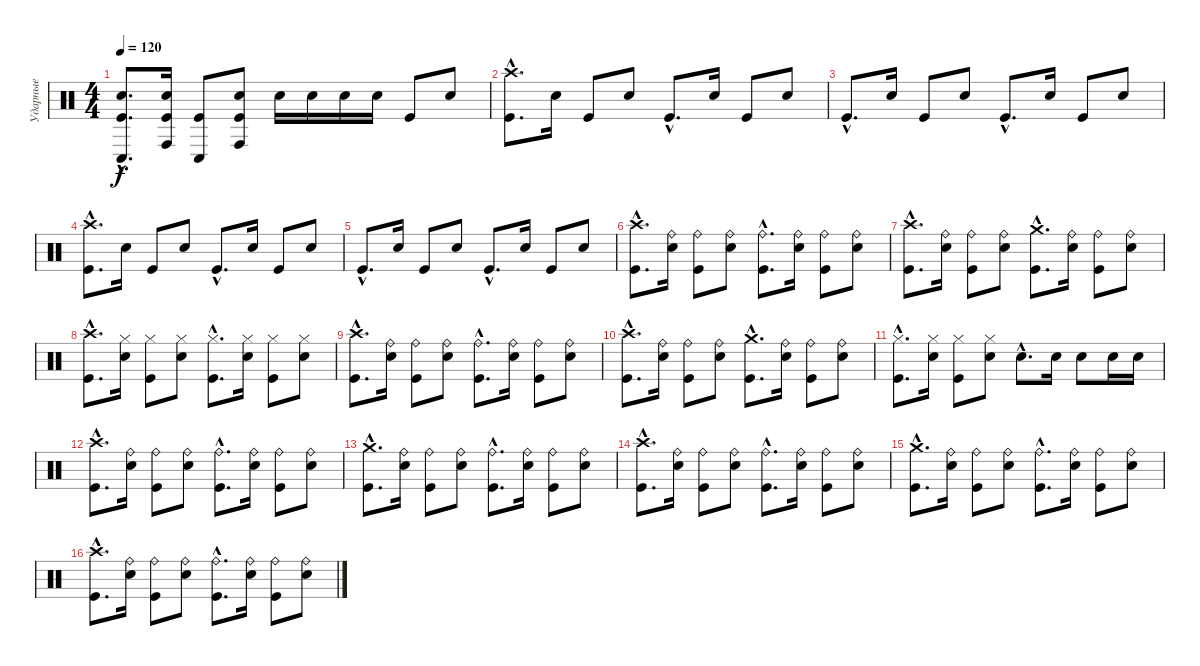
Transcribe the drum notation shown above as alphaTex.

\track ("Ударные" "Ударные") {instrument percussion}
\staff {score}
\articulation defaults
\ts (4 4)
\tempo 120
\clef neutral
\ks c
("Conga low (hit)"{hac} "Electric Snare (hit)"{hac} "Kick (hit)"{hac}).8{d dy f} ("Conga high (hit)" "Electric Snare (hit)" "Kick (hit)").16 ("Conga low (hit)" "Kick (hit)").8 ("Conga high (hit)" "Electric Snare (hit)" "Kick (hit)").8 "Electric Snare (hit)".16 "Electric Snare (hit)".16 "Electric Snare (hit)".16 "Electric Snare (hit)".16 "Kick (hit)".8 "Electric Snare (hit)".8 |
("Crash high (hit)"{hac} "Kick (hit)"{hac}).8{d} "Electric Snare (hit)".16 "Kick (hit)".8 "Electric Snare (hit)".8 "Kick (hit)"{hac}.8{d} "Electric Snare (hit)".16 "Kick (hit)".8 "Electric Snare (hit)".8 |
"Kick (hit)"{hac}.8{d} "Electric Snare (hit)".16 "Kick (hit)".8 "Electric Snare (hit)".8 "Kick (hit)"{hac}.8{d} "Electric Snare (hit)".16 "Kick (hit)".8 "Electric Snare (hit)".8 |
("Crash high (hit)"{hac} "Kick (hit)"{hac}).8{d} "Electric Snare (hit)".16 "Kick (hit)".8 "Electric Snare (hit)".8 "Kick (hit)"{hac}.8{d} "Electric Snare (hit)".16 "Kick (hit)".8 "Electric Snare (hit)".8 |
"Kick (hit)"{hac}.8{d} "Electric Snare (hit)".16 "Kick (hit)".8 "Electric Snare (hit)".8 "Kick (hit)"{hac}.8{d} "Electric Snare (hit)".16 "Kick (hit)".8 "Electric Snare (hit)".8 |
("Crash high (hit)"{hac} "Kick (hit)"{hac}).8{d} ("Ride (bell)" "Electric Snare (hit)").16 ("Ride (bell)" "Kick (hit)").8 ("Ride (bell)" "Electric Snare (hit)").8 ("Ride (bell)"{hac} "Kick (hit)"{hac}).8{d} ("Ride (bell)" "Electric Snare (hit)").16 ("Ride (bell)" "Kick (hit)").8 ("Ride (bell)" "Electric Snare (hit)").8 |
("Crash high (hit)"{hac} "Kick (hit)"{hac}).8{d} ("Ride (bell)" "Electric Snare (hit)").16 ("Ride (bell)" "Kick (hit)").8 ("Ride (bell)" "Electric Snare (hit)").8 ("Crash medium (hit)"{hac} "Kick (hit)"{hac}).8{d} ("Ride (bell)" "Electric Snare (hit)").16 ("Ride (bell)" "Kick (hit)").8 ("Ride (bell)" "Electric Snare (hit)").8 |
("Crash high (hit)"{hac} "Kick (hit)"{hac}).8{d} ("Hi-Hat (closed)" "Electric Snare (hit)").16 ("Hi-Hat (closed)" "Kick (hit)").8 ("Hi-Hat (closed)" "Electric Snare (hit)").8 ("Hi-Hat (closed)"{hac} "Kick (hit)"{hac}).8{d} ("Hi-Hat (closed)" "Electric Snare (hit)").16 ("Hi-Hat (closed)" "Kick (hit)").8 ("Hi-Hat (closed)" "Electric Snare (hit)").8 |
("Crash high (hit)"{hac} "Kick (hit)"{hac}).8{d} ("Ride (bell)" "Electric Snare (hit)").16 ("Ride (bell)" "Kick (hit)").8 ("Ride (bell)" "Electric Snare (hit)").8 ("Ride (bell)"{hac} "Kick (hit)"{hac}).8{d} ("Ride (bell)" "Electric Snare (hit)").16 ("Ride (bell)" "Kick (hit)").8 ("Ride (bell)" "Electric Snare (hit)").8 |
("Crash high (hit)"{hac} "Kick (hit)"{hac}).8{d} ("Ride (bell)" "Electric Snare (hit)").16 ("Ride (bell)" "Kick (hit)").8 ("Ride (bell)" "Electric Snare (hit)").8 ("Crash medium (hit)"{hac} "Kick (hit)"{hac}).8{d} ("Ride (bell)" "Electric Snare (hit)").16 ("Ride (bell)" "Kick (hit)").8 ("Ride (bell)" "Electric Snare (hit)").8 |
("Hi-Hat (closed)"{hac} "Kick (hit)"{hac}).8{d} ("Hi-Hat (closed)" "Electric Snare (hit)").16 ("Hi-Hat (closed)" "Kick (hit)").8 ("Hi-Hat (closed)" "Electric Snare (hit)").8 "Electric Snare (hit)"{hac}.8{d} "Electric Snare (hit)".16 "Electric Snare (hit)".8 "Electric Snare (hit)".16 "Electric Snare (hit)".16 |
("Crash high (hit)"{hac} "Kick (hit)"{hac}).8{d} ("Ride (bell)" "Electric Snare (hit)").16 ("Ride (bell)" "Kick (hit)").8 ("Ride (bell)" "Electric Snare (hit)").8 ("Ride (bell)"{hac} "Kick (hit)"{hac}).8{d} ("Ride (bell)" "Electric Snare (hit)").16 ("Ride (bell)" "Kick (hit)").8 ("Ride (bell)" "Electric Snare (hit)").8 |
("Crash medium (hit)"{hac} "Kick (hit)"{hac}).8{d} ("Ride (bell)" "Electric Snare (hit)").16 ("Ride (bell)" "Kick (hit)").8 ("Ride (bell)" "Electric Snare (hit)").8 ("Ride (bell)"{hac} "Kick (hit)"{hac}).8{d} ("Ride (bell)" "Electric Snare (hit)").16 ("Ride (bell)" "Kick (hit)").8 ("Ride (bell)" "Electric Snare (hit)").8 |
("Crash high (hit)"{hac} "Kick (hit)"{hac}).8{d} ("Ride (bell)" "Electric Snare (hit)").16 ("Ride (bell)" "Kick (hit)").8 ("Ride (bell)" "Electric Snare (hit)").8 ("Ride (bell)"{hac} "Kick (hit)"{hac}).8{d} ("Ride (bell)" "Electric Snare (hit)").16 ("Ride (bell)" "Kick (hit)").8 ("Ride (bell)" "Electric Snare (hit)").8 |
("Crash medium (hit)"{hac} "Kick (hit)"{hac}).8{d} ("Ride (bell)" "Electric Snare (hit)").16 ("Ride (bell)" "Kick (hit)").8 ("Ride (bell)" "Electric Snare (hit)").8 ("Ride (bell)"{hac} "Kick (hit)"{hac}).8{d} ("Ride (bell)" "Electric Snare (hit)").16 ("Ride (bell)" "Kick (hit)").8 ("Ride (bell)" "Electric Snare (hit)").8 |
("Crash high (hit)"{hac} "Kick (hit)"{hac}).8{d} ("Ride (bell)" "Electric Snare (hit)").16 ("Ride (bell)" "Kick (hit)").8 ("Ride (bell)" "Electric Snare (hit)").8 ("Ride (bell)"{hac} "Kick (hit)"{hac}).8{d} ("Ride (bell)" "Electric Snare (hit)").16 ("Ride (bell)" "Kick (hit)").8 ("Ride (bell)" "Electric Snare (hit)").8
